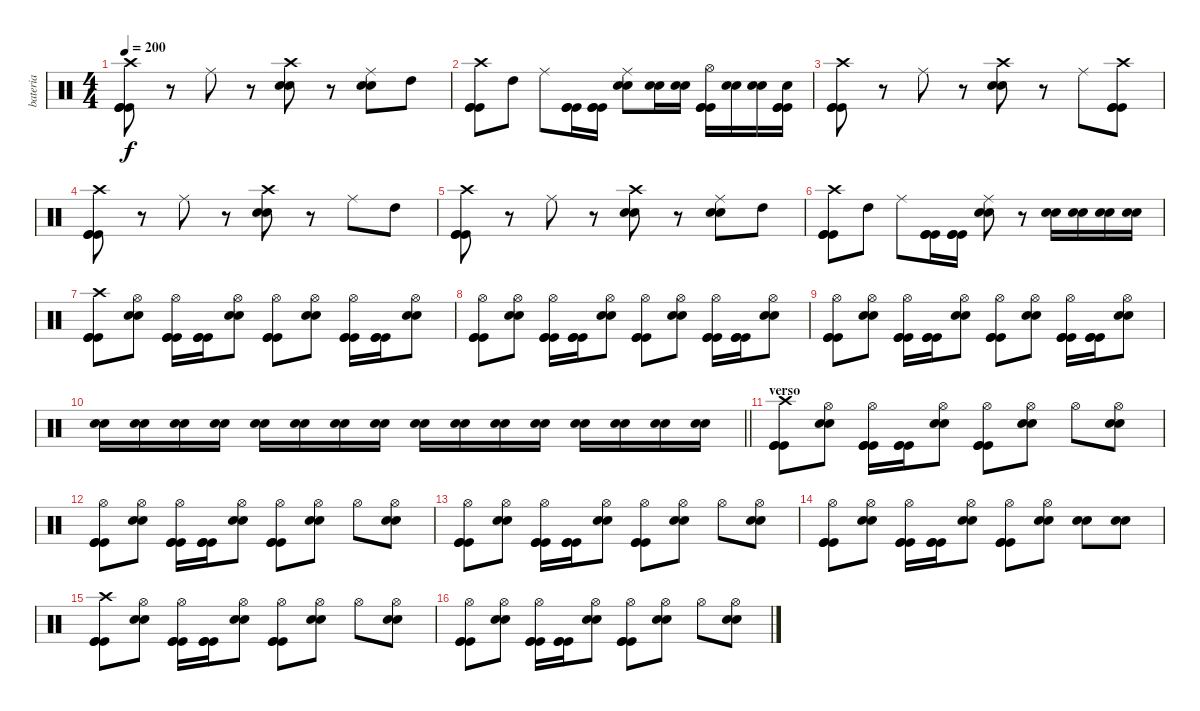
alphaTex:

\track ("bateria" "bateria") {instrument percussion}
\staff {score}
\articulation defaults
\ts (4 4)
\tempo 200
\clef neutral
\ks c
("Crash high (hit)" "Kick (hit)" "Kick (hit)" "Kick (hit)").8{dy f} r.8 "Ride (middle)".8 r.8 ("Crash high (hit)" "Electric Snare (hit)" "Electric Snare (hit)").8 r.8 ("Ride (middle)" "Electric Snare (hit)" "Electric Snare (hit)").8 "High Tom (hit)".8 |
("Crash high (hit)" "Kick (hit)" "Kick (hit)" "Kick (hit)").8 "High Tom (hit)".8 "Ride (middle)".8 ("Kick (hit)" "Kick (hit)" "Kick (hit)").16 ("Kick (hit)" "Kick (hit)" "Kick (hit)").16 ("Ride (middle)" "Electric Snare (hit)" "Electric Snare (hit)").8 ("Electric Snare (hit)" "Electric Snare (hit)").16 ("Electric Snare (hit)" "Electric Snare (hit)").16 ("Kick (hit)" "Kick (hit)" "Kick (hit)" "Hi-Hat (open)").16 ("Electric Snare (hit)" "Electric Snare (hit)").16 ("Electric Snare (hit)" "Electric Snare (hit)").16 ("Kick (hit)" "Kick (hit)" "Kick (hit)" "Electric Snare (hit)").16 |
("Crash high (hit)" "Kick (hit)" "Kick (hit)" "Kick (hit)").8 r.8 "Ride (middle)".8 r.8 ("Crash high (hit)" "Electric Snare (hit)" "Electric Snare (hit)").8 r.8 "Ride (middle)".8 ("Crash high (hit)" "Kick (hit)" "Kick (hit)" "Kick (hit)").8 |
("Crash high (hit)" "Kick (hit)" "Kick (hit)" "Kick (hit)").8 r.8 "Ride (middle)".8 r.8 ("Crash high (hit)" "Electric Snare (hit)" "Electric Snare (hit)").8 r.8 "Ride (middle)".8 "High Tom (hit)".8 |
("Crash high (hit)" "Kick (hit)" "Kick (hit)" "Kick (hit)").8 r.8 "Ride (middle)".8 r.8 ("Crash high (hit)" "Electric Snare (hit)" "Electric Snare (hit)").8 r.8 ("Ride (middle)" "Electric Snare (hit)" "Electric Snare (hit)").8 "High Tom (hit)".8 |
("Crash high (hit)" "Kick (hit)" "Kick (hit)" "Kick (hit)").8 "High Tom (hit)".8 "Ride (middle)".8 ("Kick (hit)" "Kick (hit)" "Kick (hit)").16 ("Kick (hit)" "Kick (hit)" "Kick (hit)").16 ("Ride (middle)" "Electric Snare (hit)" "Electric Snare (hit)").8 r.8 ("Electric Snare (hit)" "Electric Snare (hit)").16 ("Electric Snare (hit)" "Electric Snare (hit)").16 ("Electric Snare (hit)" "Electric Snare (hit)").16 ("Electric Snare (hit)" "Electric Snare (hit)").16 |
("Crash high (hit)" "Kick (hit)" "Kick (hit)" "Kick (hit)").8 ("Electric Snare (hit)" "Hi-Hat (open)" "Electric Snare (hit)").8 ("Hi-Hat (open)" "Kick (hit)" "Kick (hit)" "Kick (hit)").16 ("Kick (hit)" "Kick (hit)" "Kick (hit)").16 ("Electric Snare (hit)" "Hi-Hat (open)" "Electric Snare (hit)").8 ("Hi-Hat (open)" "Kick (hit)" "Kick (hit)" "Kick (hit)").8 ("Electric Snare (hit)" "Hi-Hat (open)" "Electric Snare (hit)").8 ("Hi-Hat (open)" "Kick (hit)" "Kick (hit)" "Kick (hit)").16 ("Kick (hit)" "Kick (hit)" "Kick (hit)").16 ("Electric Snare (hit)" "Hi-Hat (open)" "Electric Snare (hit)").8 |
("Hi-Hat (open)" "Kick (hit)" "Kick (hit)" "Kick (hit)").8 ("Electric Snare (hit)" "Hi-Hat (open)" "Electric Snare (hit)").8 ("Hi-Hat (open)" "Kick (hit)" "Kick (hit)" "Kick (hit)").16 ("Kick (hit)" "Kick (hit)" "Kick (hit)").16 ("Electric Snare (hit)" "Hi-Hat (open)" "Electric Snare (hit)").8 ("Hi-Hat (open)" "Kick (hit)" "Kick (hit)" "Kick (hit)").8 ("Electric Snare (hit)" "Hi-Hat (open)" "Electric Snare (hit)").8 ("Hi-Hat (open)" "Kick (hit)" "Kick (hit)" "Kick (hit)").16 ("Kick (hit)" "Kick (hit)" "Kick (hit)").16 ("Electric Snare (hit)" "Hi-Hat (open)" "Electric Snare (hit)").8 |
("Hi-Hat (open)" "Kick (hit)" "Kick (hit)" "Kick (hit)").8 ("Electric Snare (hit)" "Hi-Hat (open)" "Electric Snare (hit)").8 ("Hi-Hat (open)" "Kick (hit)" "Kick (hit)" "Kick (hit)").16 ("Kick (hit)" "Kick (hit)" "Kick (hit)").16 ("Electric Snare (hit)" "Hi-Hat (open)" "Electric Snare (hit)").8 ("Hi-Hat (open)" "Kick (hit)" "Kick (hit)" "Kick (hit)").8 ("Electric Snare (hit)" "Hi-Hat (open)" "Electric Snare (hit)").8 ("Hi-Hat (open)" "Kick (hit)" "Kick (hit)" "Kick (hit)").16 ("Kick (hit)" "Kick (hit)" "Kick (hit)").16 ("Electric Snare (hit)" "Hi-Hat (open)" "Electric Snare (hit)").8 |
\barLineRight lightlight
("Electric Snare (hit)" "Electric Snare (hit)").16 ("Electric Snare (hit)" "Electric Snare (hit)").16 ("Electric Snare (hit)" "Electric Snare (hit)").16 ("Electric Snare (hit)" "Electric Snare (hit)").16 ("Electric Snare (hit)" "Electric Snare (hit)").16 ("Electric Snare (hit)" "Electric Snare (hit)").16 ("Electric Snare (hit)" "Electric Snare (hit)").16 ("Electric Snare (hit)" "Electric Snare (hit)").16 ("Electric Snare (hit)" "Electric Snare (hit)").16 ("Electric Snare (hit)" "Electric Snare (hit)").16 ("Electric Snare (hit)" "Electric Snare (hit)").16 ("Electric Snare (hit)" "Electric Snare (hit)").16 ("Electric Snare (hit)" "Electric Snare (hit)").16 ("Electric Snare (hit)" "Electric Snare (hit)").16 ("Electric Snare (hit)" "Electric Snare (hit)").16 ("Electric Snare (hit)" "Electric Snare (hit)").16 |
\section ("" "verso")
("Crash high (hit)" "Kick (hit)" "Kick (hit)" "Kick (hit)").8 ("Electric Snare (hit)" "Hi-Hat (open)" "Electric Snare (hit)").8 ("Hi-Hat (open)" "Kick (hit)" "Kick (hit)" "Kick (hit)").16 ("Kick (hit)" "Kick (hit)" "Kick (hit)").16 ("Electric Snare (hit)" "Hi-Hat (open)" "Electric Snare (hit)").8 ("Hi-Hat (open)" "Kick (hit)" "Kick (hit)" "Kick (hit)").8 ("Electric Snare (hit)" "Hi-Hat (open)" "Electric Snare (hit)").8 "Hi-Hat (open)".8 ("Electric Snare (hit)" "Hi-Hat (open)" "Electric Snare (hit)").8 |
("Hi-Hat (open)" "Kick (hit)" "Kick (hit)" "Kick (hit)").8 ("Electric Snare (hit)" "Hi-Hat (open)" "Electric Snare (hit)").8 ("Hi-Hat (open)" "Kick (hit)" "Kick (hit)" "Kick (hit)").16 ("Kick (hit)" "Kick (hit)" "Kick (hit)").16 ("Electric Snare (hit)" "Hi-Hat (open)" "Electric Snare (hit)").8 ("Hi-Hat (open)" "Kick (hit)" "Kick (hit)" "Kick (hit)").8 ("Electric Snare (hit)" "Hi-Hat (open)" "Electric Snare (hit)").8 "Hi-Hat (open)".8 ("Electric Snare (hit)" "Hi-Hat (open)" "Electric Snare (hit)").8 |
("Hi-Hat (open)" "Kick (hit)" "Kick (hit)" "Kick (hit)").8 ("Electric Snare (hit)" "Hi-Hat (open)" "Electric Snare (hit)").8 ("Hi-Hat (open)" "Kick (hit)" "Kick (hit)" "Kick (hit)").16 ("Kick (hit)" "Kick (hit)" "Kick (hit)").16 ("Electric Snare (hit)" "Hi-Hat (open)" "Electric Snare (hit)").8 ("Hi-Hat (open)" "Kick (hit)" "Kick (hit)" "Kick (hit)").8 ("Electric Snare (hit)" "Hi-Hat (open)" "Electric Snare (hit)").8 "Hi-Hat (open)".8 ("Electric Snare (hit)" "Hi-Hat (open)" "Electric Snare (hit)").8 |
("Hi-Hat (open)" "Kick (hit)" "Kick (hit)" "Kick (hit)").8 ("Electric Snare (hit)" "Hi-Hat (open)" "Electric Snare (hit)").8 ("Hi-Hat (open)" "Kick (hit)" "Kick (hit)" "Kick (hit)").16 ("Kick (hit)" "Kick (hit)" "Kick (hit)").16 ("Electric Snare (hit)" "Hi-Hat (open)" "Electric Snare (hit)").8 ("Hi-Hat (open)" "Kick (hit)" "Kick (hit)" "Kick (hit)").8 ("Electric Snare (hit)" "Hi-Hat (open)" "Electric Snare (hit)").8 ("Electric Snare (hit)" "Electric Snare (hit)").8 ("Electric Snare (hit)" "Electric Snare (hit)").8 |
("Crash high (hit)" "Kick (hit)" "Kick (hit)" "Kick (hit)").8 ("Electric Snare (hit)" "Hi-Hat (open)" "Electric Snare (hit)").8 ("Hi-Hat (open)" "Kick (hit)" "Kick (hit)" "Kick (hit)").16 ("Kick (hit)" "Kick (hit)" "Kick (hit)").16 ("Electric Snare (hit)" "Hi-Hat (open)" "Electric Snare (hit)").8 ("Hi-Hat (open)" "Kick (hit)" "Kick (hit)" "Kick (hit)").8 ("Electric Snare (hit)" "Hi-Hat (open)" "Electric Snare (hit)").8 "Hi-Hat (open)".8 ("Electric Snare (hit)" "Hi-Hat (open)" "Electric Snare (hit)").8 |
("Hi-Hat (open)" "Kick (hit)" "Kick (hit)" "Kick (hit)").8 ("Electric Snare (hit)" "Hi-Hat (open)" "Electric Snare (hit)").8 ("Hi-Hat (open)" "Kick (hit)" "Kick (hit)" "Kick (hit)").16 ("Kick (hit)" "Kick (hit)" "Kick (hit)").16 ("Electric Snare (hit)" "Hi-Hat (open)" "Electric Snare (hit)").8 ("Hi-Hat (open)" "Kick (hit)" "Kick (hit)" "Kick (hit)").8 ("Electric Snare (hit)" "Hi-Hat (open)" "Electric Snare (hit)").8 "Hi-Hat (open)".8 ("Electric Snare (hit)" "Hi-Hat (open)" "Electric Snare (hit)").8
